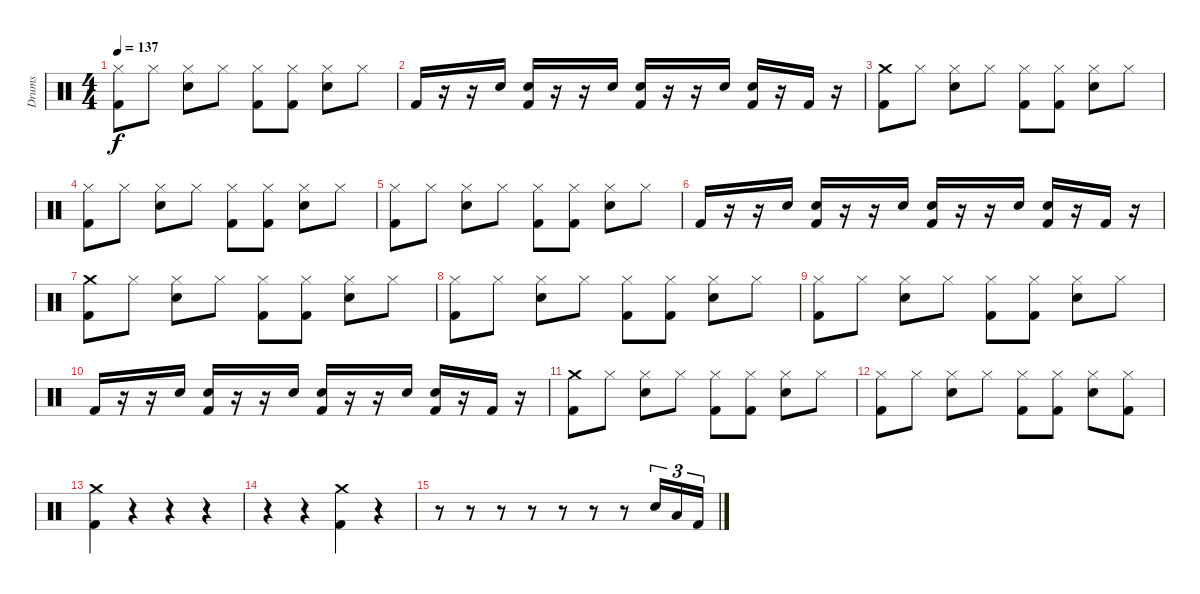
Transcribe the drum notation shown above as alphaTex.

\track ("Drums" "Drums") {instrument percussion}
\staff {score}
\articulation defaults
\ts (4 4)
\tempo 137
\clef neutral
\ks c
("Hi-Hat (closed)" "Kick (hit) 2").8{dy f} "Hi-Hat (closed)".8 ("Hi-Hat (closed)" "Snare (hit) 2").8 "Hi-Hat (closed)".8 ("Hi-Hat (closed)" "Kick (hit) 2").8 ("Hi-Hat (closed)" "Kick (hit) 2").8 ("Hi-Hat (closed)" "Snare (hit) 2").8 "Hi-Hat (closed)".8 |
"Kick (hit) 2".16 r.16 r.16 "Snare (hit) 2".16 ("Snare (hit) 2" "Kick (hit) 2").16 r.16 r.16 "Snare (hit) 2".16 ("Snare (hit) 2" "Kick (hit) 2").16 r.16 r.16 "Snare (hit) 2".16 ("Snare (hit) 2" "Kick (hit) 2").16 r.16 "Kick (hit) 2".16 r.16 |
("Crash medium (hit)" "Kick (hit) 2").8 "Hi-Hat (closed)".8 ("Hi-Hat (closed)" "Snare (hit) 2").8 "Hi-Hat (closed)".8 ("Hi-Hat (closed)" "Kick (hit) 2").8 ("Hi-Hat (closed)" "Kick (hit) 2").8 ("Hi-Hat (closed)" "Snare (hit) 2").8 "Hi-Hat (closed)".8 |
("Hi-Hat (closed)" "Kick (hit) 2").8 "Hi-Hat (closed)".8 ("Hi-Hat (closed)" "Snare (hit) 2").8 "Hi-Hat (closed)".8 ("Hi-Hat (closed)" "Kick (hit) 2").8 ("Hi-Hat (closed)" "Kick (hit) 2").8 ("Hi-Hat (closed)" "Snare (hit) 2").8 "Hi-Hat (closed)".8 |
("Hi-Hat (closed)" "Kick (hit) 2").8 "Hi-Hat (closed)".8 ("Hi-Hat (closed)" "Snare (hit) 2").8 "Hi-Hat (closed)".8 ("Hi-Hat (closed)" "Kick (hit) 2").8 ("Hi-Hat (closed)" "Kick (hit) 2").8 ("Hi-Hat (closed)" "Snare (hit) 2").8 "Hi-Hat (closed)".8 |
"Kick (hit) 2".16 r.16 r.16 "Snare (hit) 2".16 ("Snare (hit) 2" "Kick (hit) 2").16 r.16 r.16 "Snare (hit) 2".16 ("Snare (hit) 2" "Kick (hit) 2").16 r.16 r.16 "Snare (hit) 2".16 ("Snare (hit) 2" "Kick (hit) 2").16 r.16 "Kick (hit) 2".16 r.16 |
("Crash medium (hit)" "Kick (hit) 2").8 "Hi-Hat (closed)".8 ("Hi-Hat (closed)" "Snare (hit) 2").8 "Hi-Hat (closed)".8 ("Hi-Hat (closed)" "Kick (hit) 2").8 ("Hi-Hat (closed)" "Kick (hit) 2").8 ("Hi-Hat (closed)" "Snare (hit) 2").8 "Hi-Hat (closed)".8 |
("Hi-Hat (closed)" "Kick (hit) 2").8 "Hi-Hat (closed)".8 ("Hi-Hat (closed)" "Snare (hit) 2").8 "Hi-Hat (closed)".8 ("Hi-Hat (closed)" "Kick (hit) 2").8 ("Hi-Hat (closed)" "Kick (hit) 2").8 ("Hi-Hat (closed)" "Snare (hit) 2").8 "Hi-Hat (closed)".8 |
("Hi-Hat (closed)" "Kick (hit) 2").8 "Hi-Hat (closed)".8 ("Hi-Hat (closed)" "Snare (hit) 2").8 "Hi-Hat (closed)".8 ("Hi-Hat (closed)" "Kick (hit) 2").8 ("Hi-Hat (closed)" "Kick (hit) 2").8 ("Hi-Hat (closed)" "Snare (hit) 2").8 "Hi-Hat (closed)".8 |
"Kick (hit) 2".16 r.16 r.16 "Snare (hit) 2".16 ("Snare (hit) 2" "Kick (hit) 2").16 r.16 r.16 "Snare (hit) 2".16 ("Snare (hit) 2" "Kick (hit) 2").16 r.16 r.16 "Snare (hit) 2".16 ("Snare (hit) 2" "Kick (hit) 2").16 r.16 "Kick (hit) 2".16 r.16 |
("Crash medium (hit)" "Kick (hit) 2").8 "Hi-Hat (closed)".8 ("Hi-Hat (closed)" "Snare (hit) 2").8 "Hi-Hat (closed)".8 ("Hi-Hat (closed)" "Kick (hit) 2").8 ("Hi-Hat (closed)" "Kick (hit) 2").8 ("Hi-Hat (closed)" "Snare (hit) 2").8 "Hi-Hat (closed)".8 |
("Hi-Hat (closed)" "Kick (hit) 2").8 "Hi-Hat (closed)".8 ("Hi-Hat (closed)" "Snare (hit) 2").8 "Hi-Hat (closed)".8 ("Hi-Hat (closed)" "Kick (hit) 2").8 ("Hi-Hat (closed)" "Kick (hit) 2").8 ("Hi-Hat (closed)" "Snare (hit) 2").8 ("Hi-Hat (closed)" "Kick (hit) 2").8 |
("Crash medium (hit)" "Kick (hit) 2").4 r.4 r.4 r.4 |
r.4 r.4 ("Crash medium (hit)" "Kick (hit) 2").4 r.4 |
r.8 r.8 r.8 r.8 r.8 r.8 r.8 "Snare (hit) 2".16{tu (3 2)} "Low Tom (hit)".16{tu (3 2)} "Kick (hit) 2".16{tu (3 2)}
